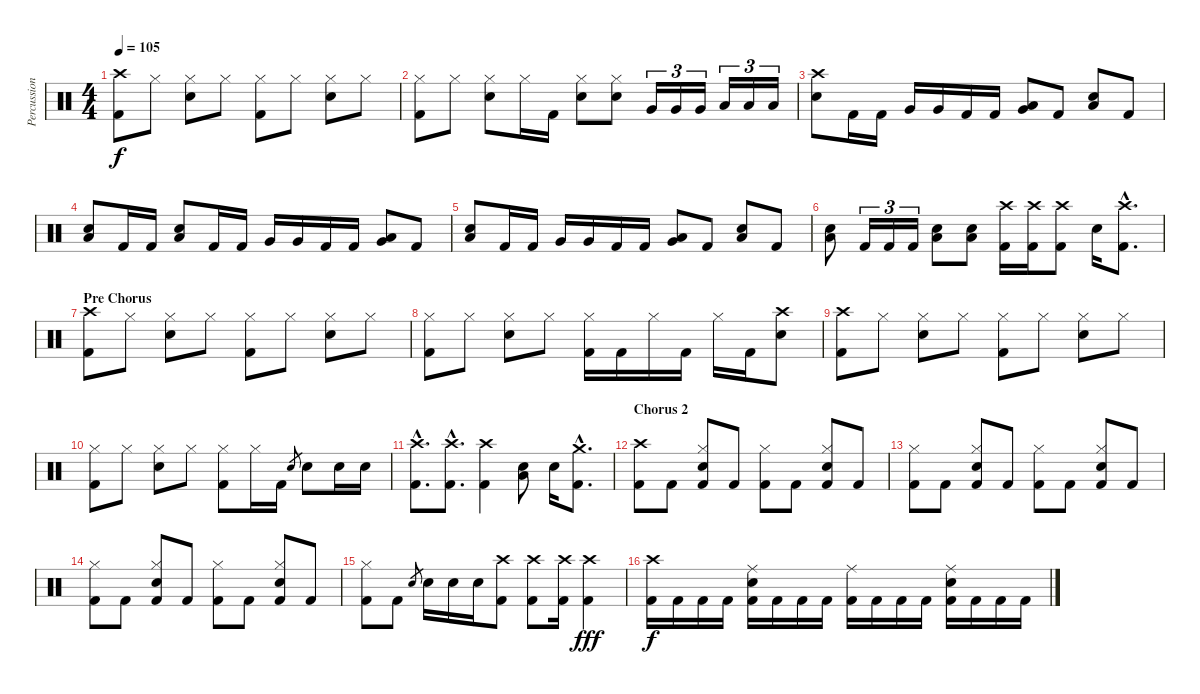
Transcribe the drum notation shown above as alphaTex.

\track ("Percussion" "Percussion") {instrument percussion}
\staff {score}
\articulation defaults
\ts (4 4)
\tempo 105
\clef neutral
\ks c
("Crash high (hit)" "Kick (hit) 2").8{dy f} "Hi-Hat (closed)".8 ("Hi-Hat (closed)" "Snare (hit) 2").8 "Hi-Hat (closed)".8 ("Hi-Hat (closed)" "Kick (hit) 2").8 "Hi-Hat (closed)".8 ("Hi-Hat (closed)" "Snare (hit) 2").8 "Hi-Hat (closed)".8 |
("Hi-Hat (closed)" "Kick (hit) 2").8 "Hi-Hat (closed)".8 ("Hi-Hat (closed)" "Snare (hit) 2").8 "Hi-Hat (closed)".16 "Kick (hit) 2".16 ("Hi-Hat (closed)" "Snare (hit) 2").8 ("Hi-Hat (closed)" "Snare (hit) 2").8 "Very Low Tom (hit)".16{tu (3 2)} "Very Low Tom (hit)".16{tu (3 2)} "Very Low Tom (hit)".16{tu (3 2)} "Low Floor Tom (hit)".16{tu (3 2)} "Low Floor Tom (hit)".16{tu (3 2)} "Low Floor Tom (hit)".16{tu (3 2)} |
("Crash high (hit)" "Snare (hit) 2").8 "Kick (hit) 2".16 "Kick (hit) 2".16 "Very Low Tom (hit)".16 "Very Low Tom (hit)".16 "Kick (hit) 2".16 "Kick (hit) 2".16 ("Very Low Tom (hit)" "Low Floor Tom (hit)").8 "Kick (hit) 2".8 ("Low Floor Tom (hit)" "Snare (hit) 2").8 "Kick (hit) 2".8 |
("Low Floor Tom (hit)" "Snare (hit) 2").8 "Kick (hit) 2".16 "Kick (hit) 2".16 ("Low Floor Tom (hit)" "Snare (hit) 2").8 "Kick (hit) 2".16 "Kick (hit) 2".16 "Very Low Tom (hit)".16 "Very Low Tom (hit)".16 "Kick (hit) 2".16 "Kick (hit) 2".16 ("Very Low Tom (hit)" "Low Floor Tom (hit)").8 "Kick (hit) 2".8 |
("Low Floor Tom (hit)" "Snare (hit) 2").8 "Kick (hit) 2".16 "Kick (hit) 2".16 "Very Low Tom (hit)".16 "Very Low Tom (hit)".16 "Kick (hit) 2".16 "Kick (hit) 2".16 ("Very Low Tom (hit)" "Low Floor Tom (hit)").8 "Kick (hit) 2".8 ("Low Floor Tom (hit)" "Snare (hit) 2").8 "Kick (hit) 2".8 |
("Low Floor Tom (hit)" "Snare (hit) 2").8 "Kick (hit) 2".16{tu (3 2)} "Kick (hit) 2".16{tu (3 2)} "Kick (hit) 2".16{tu (3 2)} ("Low Floor Tom (hit)" "Snare (hit) 2").8 ("Low Floor Tom (hit)" "Snare (hit) 2").8 ("Crash high (hit)" "Kick (hit) 2").16 ("Crash high (hit)" "Kick (hit) 2").16 ("Crash high (hit)" "Kick (hit) 2").8 "Snare (hit) 2".16 ("Crash high (hit)"{hac} "Kick (hit) 2"{hac}).8{d} |
\section ("" "Pre Chorus")
("Crash high (hit)" "Kick (hit) 2").8 "Hi-Hat (closed)".8 ("Hi-Hat (closed)" "Snare (hit) 2").8 "Hi-Hat (closed)".8 ("Hi-Hat (closed)" "Kick (hit) 2").8 "Hi-Hat (closed)".8 ("Hi-Hat (closed)" "Snare (hit) 2").8 "Hi-Hat (closed)".8 |
("Hi-Hat (closed)" "Kick (hit) 2").8 "Hi-Hat (closed)".8 ("Hi-Hat (closed)" "Snare (hit) 2").8 "Hi-Hat (closed)".8 ("Hi-Hat (closed)" "Kick (hit) 2").16 "Kick (hit) 2".16 "Hi-Hat (closed)".16 "Kick (hit) 2".16 "Hi-Hat (closed)".16 "Kick (hit) 2".16 ("Crash high (hit)" "Snare (hit) 2").8 |
("Crash high (hit)" "Kick (hit) 2").8 "Hi-Hat (closed)".8 ("Hi-Hat (closed)" "Snare (hit) 2").8 "Hi-Hat (closed)".8 ("Hi-Hat (closed)" "Kick (hit) 2").8 "Hi-Hat (closed)".8 ("Hi-Hat (closed)" "Snare (hit) 2").8 "Hi-Hat (closed)".8 |
("Hi-Hat (closed)" "Kick (hit) 2").8 "Hi-Hat (closed)".8 ("Hi-Hat (closed)" "Snare (hit) 2").8 "Hi-Hat (closed)".8 ("Hi-Hat (closed)" "Kick (hit) 2").8 "Hi-Hat (closed)".16 "Kick (hit) 2".16 "Snare (hit) 2".8{gr} "Snare (hit) 2".8 "Snare (hit) 2".16 "Snare (hit) 2".16 |
("Crash high (hit)"{hac} "Kick (hit) 2"{hac}).8{d} ("Crash high (hit)"{hac} "Kick (hit) 2"{hac}).8{d} ("Crash high (hit)" "Kick (hit) 2").4 ("Low Floor Tom (hit)" "Snare (hit) 2").8 "Snare (hit) 2".16 ("Crash medium (hit)"{hac} "Kick (hit) 2"{hac}).8{d} |
\section ("" "Chorus 2")
("Crash high (hit)" "Kick (hit) 2").8 "Kick (hit) 2".8 ("Hi-Hat (closed)" "Snare (hit) 2" "Kick (hit) 2").8 "Kick (hit) 2".8 ("Hi-Hat (closed)" "Kick (hit) 2").8 "Kick (hit) 2".8 ("Hi-Hat (closed)" "Snare (hit) 2" "Kick (hit) 2").8 "Kick (hit) 2".8 |
("Hi-Hat (closed)" "Kick (hit) 2").8 "Kick (hit) 2".8 ("Hi-Hat (closed)" "Snare (hit) 2" "Kick (hit) 2").8 "Kick (hit) 2".8 ("Hi-Hat (closed)" "Kick (hit) 2").8 "Kick (hit) 2".8 ("Hi-Hat (closed)" "Snare (hit) 2" "Kick (hit) 2").8 "Kick (hit) 2".8 |
("Hi-Hat (closed)" "Kick (hit) 2").8 "Kick (hit) 2".8 ("Hi-Hat (closed)" "Snare (hit) 2" "Kick (hit) 2").8 "Kick (hit) 2".8 ("Hi-Hat (closed)" "Kick (hit) 2").8 "Kick (hit) 2".8 ("Hi-Hat (closed)" "Snare (hit) 2" "Kick (hit) 2").8 "Kick (hit) 2".8 |
("Hi-Hat (closed)" "Kick (hit) 2").8 "Kick (hit) 2".8 "Snare (hit) 2".8{gr} "Snare (hit) 2".16 "Snare (hit) 2".16 "Snare (hit) 2".16 ("Crash high (hit)" "Kick (hit) 2").8 ("Crash high (hit)" "Kick (hit) 2").8 ("Crash high (hit)" "Kick (hit) 2").16 ("Crash high (hit)" "Kick (hit) 2").4{dy fff} |
("Crash high (hit)" "Kick (hit) 2").16{dy f} "Kick (hit) 2".16 "Kick (hit) 2".16 "Kick (hit) 2".16 ("Ride (middle)" "Snare (hit) 2" "Kick (hit) 2").16 "Kick (hit) 2".16 "Kick (hit) 2".16 "Kick (hit) 2".16 ("Ride (middle)" "Kick (hit) 2").16 "Kick (hit) 2".16 "Kick (hit) 2".16 "Kick (hit) 2".16 ("Ride (middle)" "Snare (hit) 2" "Kick (hit) 2").16 "Kick (hit) 2".16 "Kick (hit) 2".16 "Kick (hit) 2".16
